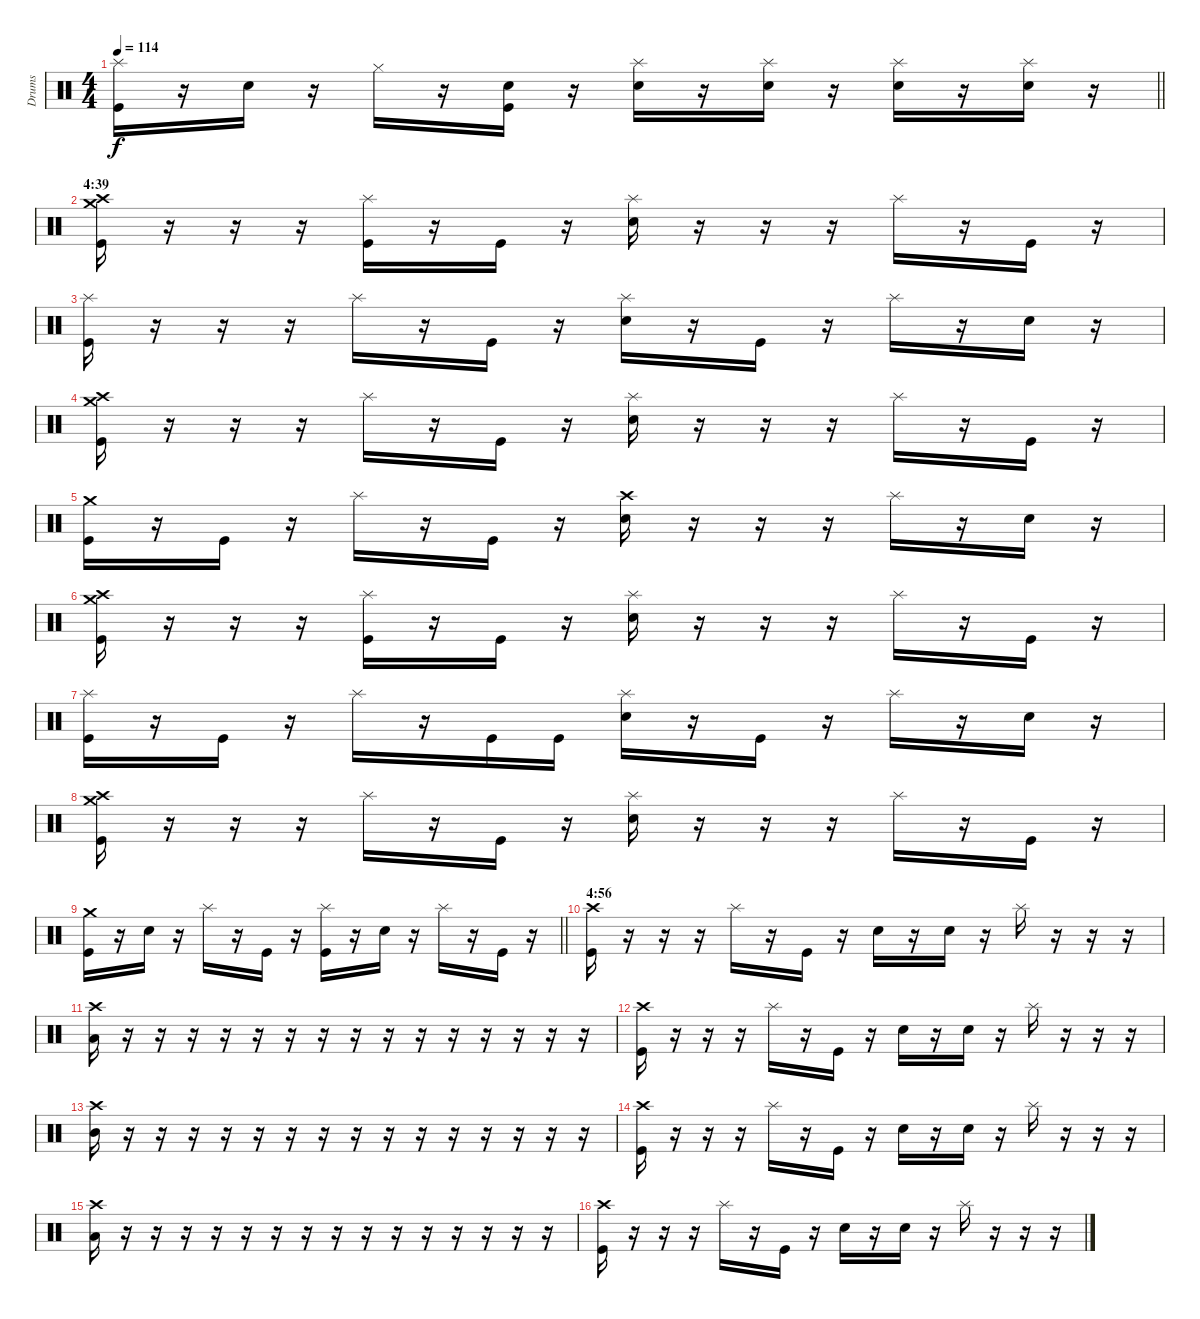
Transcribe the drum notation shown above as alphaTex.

\track ("Drums" "Drums") {instrument percussion}
\staff {score}
\articulation defaults
\ts (4 4)
\tempo 114
\clef neutral
\barLineRight lightlight
\ks c
("Splash (hit)" "Kick (hit)").16{dy f} r.16 "Snare (hit) 2".16 r.16 "Hi-Hat (closed)".16 r.16 ("Snare (hit) 2" "Kick (hit)").16 r.16 ("Splash (hit)" "Snare (hit) 2").16 r.16 ("Splash (hit)" "Snare (hit) 2").16 r.16 ("Splash (hit)" "Snare (hit) 2").16 r.16 ("Splash (hit)" "Snare (hit) 2").16 r.16 |
\section ("" "4:39")
("Crash medium (hit)" "Crash high (hit)" "Kick (hit)").16 r.16 r.16 r.16 ("Splash (hit)" "Kick (hit)").16 r.16 "Kick (hit)".16 r.16 ("Splash (hit)" "Snare (hit) 2").16 r.16 r.16 r.16 "Splash (hit)".16 r.16 "Kick (hit)".16 r.16 |
("Splash (hit)" "Kick (hit)").16 r.16 r.16 r.16 "Splash (hit)".16 r.16 "Kick (hit)".16 r.16 ("Splash (hit)" "Snare (hit) 2").16 r.16 "Kick (hit)".16 r.16 "Splash (hit)".16 r.16 "Snare (hit) 2".16 r.16 |
("Crash medium (hit)" "Crash high (hit)" "Kick (hit)").16 r.16 r.16 r.16 "Splash (hit)".16 r.16 "Kick (hit)".16 r.16 ("Splash (hit)" "Snare (hit) 2").16 r.16 r.16 r.16 "Splash (hit)".16 r.16 "Kick (hit)".16 r.16 |
("Crash medium (hit)" "Kick (hit)").16 r.16 "Kick (hit)".16 r.16 "Splash (hit)".16 r.16 "Kick (hit)".16 r.16 ("Crash high (hit)" "Snare (hit) 2").16 r.16 r.16 r.16 "Splash (hit)".16 r.16 "Snare (hit) 2".16 r.16 |
("Crash medium (hit)" "Crash high (hit)" "Kick (hit)").16 r.16 r.16 r.16 ("Splash (hit)" "Kick (hit)").16 r.16 "Kick (hit)".16 r.16 ("Splash (hit)" "Snare (hit) 2").16 r.16 r.16 r.16 "Splash (hit)".16 r.16 "Kick (hit)".16 r.16 |
("Splash (hit)" "Kick (hit)").16 r.16 "Kick (hit)".16 r.16 "Splash (hit)".16 r.16 "Kick (hit)".16 "Kick (hit)".16 ("Splash (hit)" "Snare (hit) 2").16 r.16 "Kick (hit)".16 r.16 "Splash (hit)".16 r.16 "Snare (hit) 2".16 r.16 |
("Crash medium (hit)" "Crash high (hit)" "Kick (hit)").16 r.16 r.16 r.16 "Splash (hit)".16 r.16 "Kick (hit)".16 r.16 ("Splash (hit)" "Snare (hit) 2").16 r.16 r.16 r.16 "Splash (hit)".16 r.16 "Kick (hit)".16 r.16 |
\barLineRight lightlight
("Crash medium (hit)" "Kick (hit)").16 r.16 "Snare (hit) 2".16 r.16 "Splash (hit)".16 r.16 "Kick (hit)".16 r.16 ("Splash (hit)" "Kick (hit)").16 r.16 "Snare (hit) 2".16 r.16 "Splash (hit)".16 r.16 "Kick (hit)".16 r.16 |
\section ("" "4:56")
("Crash high (hit)" "Kick (hit)").16 r.16 r.16 r.16 "Splash (hit)".16 r.16 "Kick (hit)".16 r.16 "Snare (hit) 2".16 r.16 "Snare (hit) 2".16 r.16 "Splash (hit)".16 r.16 r.16 r.16 |
("Crash high (hit)" "Low Tom (hit)").16 r.16 r.16 r.16 r.16 r.16 r.16 r.16 r.16 r.16 r.16 r.16 r.16 r.16 r.16 r.16 |
("Crash high (hit)" "Kick (hit)").16 r.16 r.16 r.16 "Splash (hit)".16 r.16 "Kick (hit)".16 r.16 "Snare (hit) 2".16 r.16 "Snare (hit) 2".16 r.16 "Splash (hit)".16 r.16 r.16 r.16 |
("Crash high (hit)" "Mid Tom (hit)").16 r.16 r.16 r.16 r.16 r.16 r.16 r.16 r.16 r.16 r.16 r.16 r.16 r.16 r.16 r.16 |
("Crash high (hit)" "Kick (hit)").16 r.16 r.16 r.16 "Splash (hit)".16 r.16 "Kick (hit)".16 r.16 "Snare (hit) 2".16 r.16 "Snare (hit) 2".16 r.16 "Splash (hit)".16 r.16 r.16 r.16 |
("Crash high (hit)" "Low Tom (hit)").16 r.16 r.16 r.16 r.16 r.16 r.16 r.16 r.16 r.16 r.16 r.16 r.16 r.16 r.16 r.16 |
("Crash high (hit)" "Kick (hit)").16 r.16 r.16 r.16 "Splash (hit)".16 r.16 "Kick (hit)".16 r.16 "Snare (hit) 2".16 r.16 "Snare (hit) 2".16 r.16 "Splash (hit)".16 r.16 r.16 r.16
